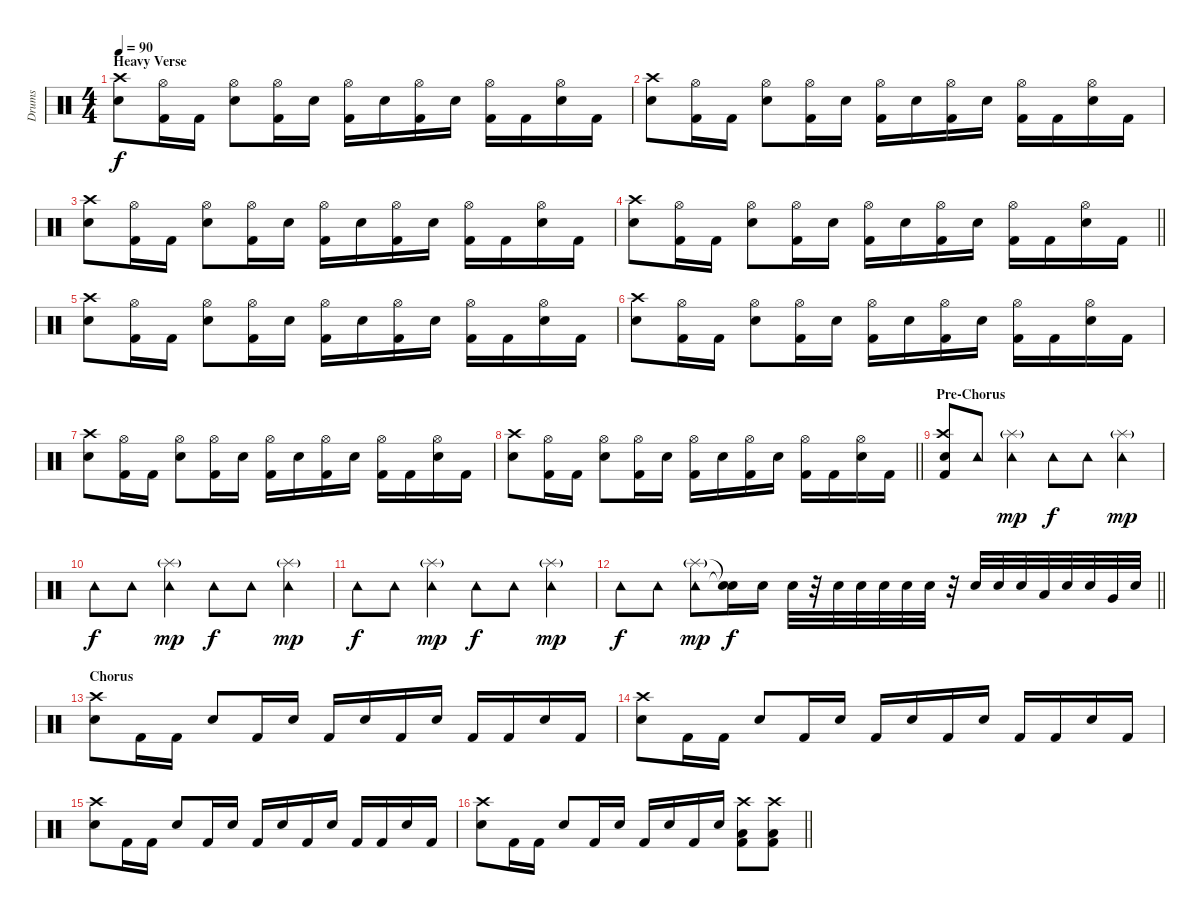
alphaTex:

\track ("Drums" "Drums") {instrument percussion}
\staff {score}
\articulation defaults
\ts (4 4)
\section ("" "Heavy Verse")
\tempo 90
\clef neutral
\ks c
("Electric Snare (hit)" "Crash high (hit)").8{dy f} ("Kick (hit) 2" "Hi-Hat (open)").16 "Kick (hit) 2".16 ("Electric Snare (hit)" "Hi-Hat (open)").8 ("Kick (hit) 2" "Hi-Hat (open)").16 "Electric Snare (hit)".16 ("Kick (hit) 2" "Hi-Hat (open)").16 "Electric Snare (hit)".16 ("Kick (hit) 2" "Hi-Hat (open)").16 "Electric Snare (hit)".16 ("Kick (hit) 2" "Hi-Hat (open)").16 "Kick (hit) 2".16 ("Electric Snare (hit)" "Hi-Hat (open)").16 "Kick (hit) 2".16 |
("Electric Snare (hit)" "Crash high (hit)").8 ("Kick (hit) 2" "Hi-Hat (open)").16 "Kick (hit) 2".16 ("Electric Snare (hit)" "Hi-Hat (open)").8 ("Kick (hit) 2" "Hi-Hat (open)").16 "Electric Snare (hit)".16 ("Kick (hit) 2" "Hi-Hat (open)").16 "Electric Snare (hit)".16 ("Kick (hit) 2" "Hi-Hat (open)").16 "Electric Snare (hit)".16 ("Kick (hit) 2" "Hi-Hat (open)").16 "Kick (hit) 2".16 ("Electric Snare (hit)" "Hi-Hat (open)").16 "Kick (hit) 2".16 |
("Electric Snare (hit)" "Crash high (hit)").8 ("Kick (hit) 2" "Hi-Hat (open)").16 "Kick (hit) 2".16 ("Electric Snare (hit)" "Hi-Hat (open)").8 ("Kick (hit) 2" "Hi-Hat (open)").16 "Electric Snare (hit)".16 ("Kick (hit) 2" "Hi-Hat (open)").16 "Electric Snare (hit)".16 ("Kick (hit) 2" "Hi-Hat (open)").16 "Electric Snare (hit)".16 ("Kick (hit) 2" "Hi-Hat (open)").16 "Kick (hit) 2".16 ("Electric Snare (hit)" "Hi-Hat (open)").16 "Kick (hit) 2".16 |
\barLineRight lightlight
("Electric Snare (hit)" "Crash high (hit)").8 ("Kick (hit) 2" "Hi-Hat (open)").16 "Kick (hit) 2".16 ("Electric Snare (hit)" "Hi-Hat (open)").8 ("Kick (hit) 2" "Hi-Hat (open)").16 "Electric Snare (hit)".16 ("Kick (hit) 2" "Hi-Hat (open)").16 "Electric Snare (hit)".16 ("Kick (hit) 2" "Hi-Hat (open)").16 "Electric Snare (hit)".16 ("Kick (hit) 2" "Hi-Hat (open)").16 "Kick (hit) 2".16 ("Electric Snare (hit)" "Hi-Hat (open)").16 "Kick (hit) 2".16 |
("Electric Snare (hit)" "Crash high (hit)").8 ("Kick (hit) 2" "Hi-Hat (open)").16 "Kick (hit) 2".16 ("Electric Snare (hit)" "Hi-Hat (open)").8 ("Kick (hit) 2" "Hi-Hat (open)").16 "Electric Snare (hit)".16 ("Kick (hit) 2" "Hi-Hat (open)").16 "Electric Snare (hit)".16 ("Kick (hit) 2" "Hi-Hat (open)").16 "Electric Snare (hit)".16 ("Kick (hit) 2" "Hi-Hat (open)").16 "Kick (hit) 2".16 ("Electric Snare (hit)" "Hi-Hat (open)").16 "Kick (hit) 2".16 |
("Electric Snare (hit)" "Crash high (hit)").8 ("Kick (hit) 2" "Hi-Hat (open)").16 "Kick (hit) 2".16 ("Electric Snare (hit)" "Hi-Hat (open)").8 ("Kick (hit) 2" "Hi-Hat (open)").16 "Electric Snare (hit)".16 ("Kick (hit) 2" "Hi-Hat (open)").16 "Electric Snare (hit)".16 ("Kick (hit) 2" "Hi-Hat (open)").16 "Electric Snare (hit)".16 ("Kick (hit) 2" "Hi-Hat (open)").16 "Kick (hit) 2".16 ("Electric Snare (hit)" "Hi-Hat (open)").16 "Kick (hit) 2".16 |
("Electric Snare (hit)" "Crash high (hit)").8 ("Kick (hit) 2" "Hi-Hat (open)").16 "Kick (hit) 2".16 ("Electric Snare (hit)" "Hi-Hat (open)").8 ("Kick (hit) 2" "Hi-Hat (open)").16 "Electric Snare (hit)".16 ("Kick (hit) 2" "Hi-Hat (open)").16 "Electric Snare (hit)".16 ("Kick (hit) 2" "Hi-Hat (open)").16 "Electric Snare (hit)".16 ("Kick (hit) 2" "Hi-Hat (open)").16 "Kick (hit) 2".16 ("Electric Snare (hit)" "Hi-Hat (open)").16 "Kick (hit) 2".16 |
\barLineRight lightlight
("Electric Snare (hit)" "Crash high (hit)").8 ("Kick (hit) 2" "Hi-Hat (open)").16 "Kick (hit) 2".16 ("Electric Snare (hit)" "Hi-Hat (open)").8 ("Kick (hit) 2" "Hi-Hat (open)").16 "Electric Snare (hit)".16 ("Kick (hit) 2" "Hi-Hat (open)").16 "Electric Snare (hit)".16 ("Kick (hit) 2" "Hi-Hat (open)").16 "Electric Snare (hit)".16 ("Kick (hit) 2" "Hi-Hat (open)").16 "Kick (hit) 2".16 ("Electric Snare (hit)" "Hi-Hat (open)").16 "Kick (hit) 2".16 |
\section ("" "Pre-Chorus")
("Kick (hit) 2" "Electric Snare (hit)" "Crash high (hit)").8 "Tambourine (hit)".8 ("Tambourine (hit)" "Splash (hit)"{g}).4{dy mp} "Tambourine (hit)".8{dy f} "Tambourine (hit)".8 ("Tambourine (hit)" "Splash (hit)"{g}).4{dy mp} |
"Tambourine (hit)".8{dy f} "Tambourine (hit)".8 ("Tambourine (hit)" "Splash (hit)"{g}).4{dy mp} "Tambourine (hit)".8{dy f} "Tambourine (hit)".8 ("Tambourine (hit)" "Splash (hit)"{g}).4{dy mp} |
"Tambourine (hit)".8{dy f} "Tambourine (hit)".8 ("Tambourine (hit)" "Splash (hit)"{g}).4{dy mp} "Tambourine (hit)".8{dy f} "Tambourine (hit)".8 ("Tambourine (hit)" "Splash (hit)"{g}).4{dy mp} |
\barLineRight lightlight "Tambourine (hit)".8{dy f} "Tambourine (hit)".8
("Tambourine (hit)" "Splash (hit)"{g}).8{dy mp} ("Snare (hit)"{t} "Snare (hit)"{t}).16{dy f} "Snare (hit) 2".16 "Snare (hit) 2".32 r.32 "Snare (hit) 2".32 "Snare (hit) 2".32 "Snare (hit) 2".32 "Snare (hit) 2".32 "Snare (hit) 2".32 r.32 "Snare (hit) 2".32 "Snare (hit) 2".32 "Snare (hit) 2".32 "Low Floor Tom (hit)".32 "Snare (hit) 2".32 "Snare (hit) 2".32 "Very Low Tom (hit)".32 "Snare (hit) 2".32 |
\section ("" "Chorus")
("Electric Snare (hit)" "Crash high (hit)").8 "Kick (hit) 2".16 "Kick (hit) 2".16 "Electric Snare (hit)".8 "Kick (hit) 2".16 "Electric Snare (hit)".16 "Kick (hit) 2".16 "Electric Snare (hit)".16 "Kick (hit) 2".16 "Electric Snare (hit)".16 "Kick (hit) 2".16 "Kick (hit) 2".16 "Electric Snare (hit)".16 "Kick (hit) 2".16 |
("Electric Snare (hit)" "Crash high (hit)").8 "Kick (hit) 2".16 "Kick (hit) 2".16 "Electric Snare (hit)".8 "Kick (hit) 2".16 "Electric Snare (hit)".16 "Kick (hit) 2".16 "Electric Snare (hit)".16 "Kick (hit) 2".16 "Electric Snare (hit)".16 "Kick (hit) 2".16 "Kick (hit) 2".16 "Electric Snare (hit)".16 "Kick (hit) 2".16 |
("Electric Snare (hit)" "Crash high (hit)").8 "Kick (hit) 2".16 "Kick (hit) 2".16 "Electric Snare (hit)".8 "Kick (hit) 2".16 "Electric Snare (hit)".16 "Kick (hit) 2".16 "Electric Snare (hit)".16 "Kick (hit) 2".16 "Electric Snare (hit)".16 "Kick (hit) 2".16 "Kick (hit) 2".16 "Electric Snare (hit)".16 "Kick (hit) 2".16 |
\barLineRight lightlight
("Electric Snare (hit)" "Crash high (hit)").8 "Kick (hit) 2".16 "Kick (hit) 2".16 "Electric Snare (hit)".8 "Kick (hit) 2".16 "Electric Snare (hit)".16 "Kick (hit) 2".16 "Electric Snare (hit)".16 "Kick (hit) 2".16 "Electric Snare (hit)".16 ("Kick (hit) 2" "Crash high (hit)" "Low Floor Tom (hit)").8 ("Kick (hit) 2" "Crash high (hit)" "Low Floor Tom (hit)").8
